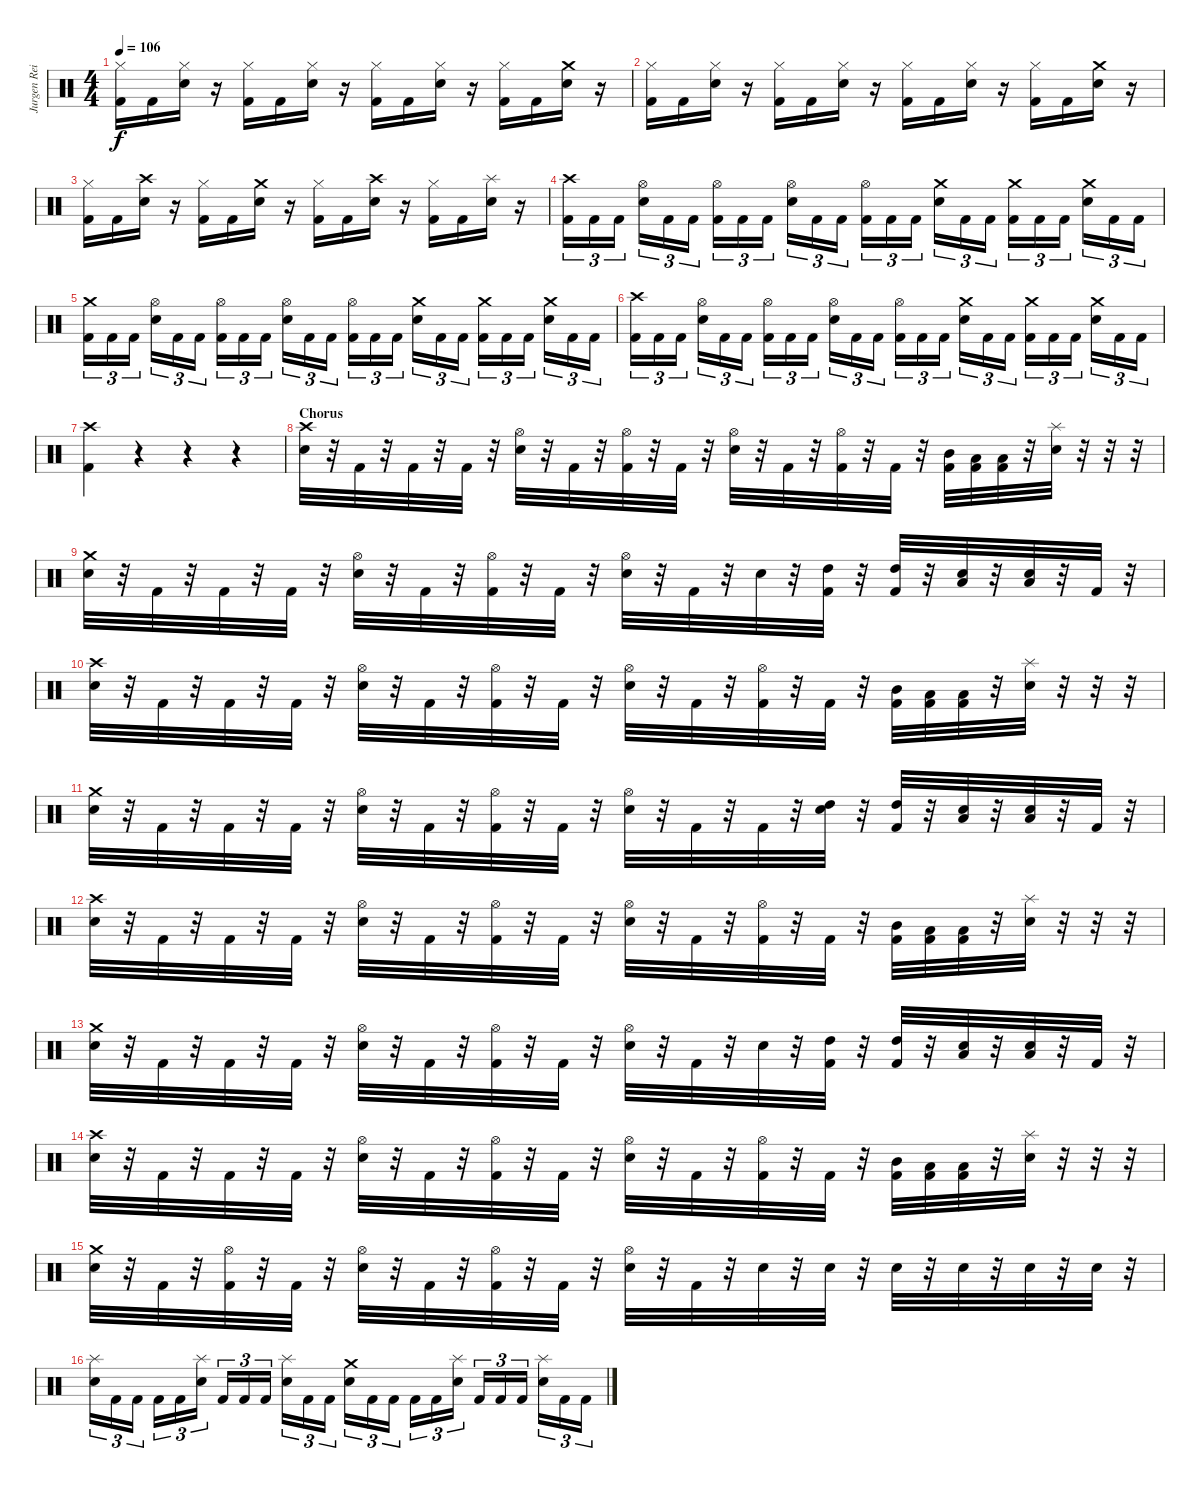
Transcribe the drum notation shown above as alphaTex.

\track ("Jurgen Reil" "Jurgen Rei") {instrument percussion}
\staff {score}
\articulation defaults
\ts (4 4)
\tempo 106
\clef neutral
\ks c
("Hi-Hat (closed)" "Kick (hit) 2").16{dy f} "Kick (hit) 2".16 ("Hi-Hat (closed)" "Snare (hit) 2").16 r.16 ("Hi-Hat (closed)" "Kick (hit) 2").16 "Kick (hit) 2".16 ("Hi-Hat (closed)" "Snare (hit) 2").16 r.16 ("Hi-Hat (closed)" "Kick (hit) 2").16 "Kick (hit) 2".16 ("Hi-Hat (closed)" "Snare (hit) 2").16 r.16 ("Hi-Hat (closed)" "Kick (hit) 2").16 "Kick (hit) 2".16 ("Crash medium (hit)" "Snare (hit) 2").16 r.16 |
("Hi-Hat (closed)" "Kick (hit) 2").16 "Kick (hit) 2".16 ("Hi-Hat (closed)" "Snare (hit) 2").16 r.16 ("Hi-Hat (closed)" "Kick (hit) 2").16 "Kick (hit) 2".16 ("Hi-Hat (closed)" "Snare (hit) 2").16 r.16 ("Hi-Hat (closed)" "Kick (hit) 2").16 "Kick (hit) 2".16 ("Hi-Hat (closed)" "Snare (hit) 2").16 r.16 ("Hi-Hat (closed)" "Kick (hit) 2").16 "Kick (hit) 2".16 ("Crash medium (hit)" "Snare (hit) 2").16 r.16 |
("Hi-Hat (closed)" "Kick (hit) 2").16 "Kick (hit) 2".16 ("Crash high (hit)" "Snare (hit) 2").16 r.16 ("Hi-Hat (closed)" "Kick (hit) 2").16 "Kick (hit) 2".16 ("Crash medium (hit)" "Snare (hit) 2").16 r.16 ("Hi-Hat (closed)" "Kick (hit) 2").16 "Kick (hit) 2".16 ("Crash high (hit)" "Snare (hit) 2").16 r.16 ("Hi-Hat (closed)" "Kick (hit) 2").16 "Kick (hit) 2".16 ("Splash (hit)" "Snare (hit) 2").16 r.16 |
("Crash high (hit)" "Kick (hit) 2").16{tu (3 2)} "Kick (hit) 2".16{tu (3 2)} "Kick (hit) 2".16{tu (3 2)} ("Hi-Hat (open)" "Snare (hit) 2").16{tu (3 2)} "Kick (hit) 2".16{tu (3 2)} "Kick (hit) 2".16{tu (3 2)} ("Hi-Hat (open)" "Kick (hit) 2").16{tu (3 2)} "Kick (hit) 2".16{tu (3 2)} "Kick (hit) 2".16{tu (3 2)} ("Hi-Hat (open)" "Snare (hit) 2").16{tu (3 2)} "Kick (hit) 2".16{tu (3 2)} "Kick (hit) 2".16{tu (3 2)} ("Hi-Hat (open)" "Kick (hit) 2").16{tu (3 2)} "Kick (hit) 2".16{tu (3 2)} "Kick (hit) 2".16{tu (3 2)} ("Crash medium (hit)" "Snare (hit) 2").16{tu (3 2)} "Kick (hit) 2".16{tu (3 2)} "Kick (hit) 2".16{tu (3 2)} ("Crash medium (hit)" "Kick (hit) 2").16{tu (3 2)} "Kick (hit) 2".16{tu (3 2)} "Kick (hit) 2".16{tu (3 2)} ("Crash medium (hit)" "Snare (hit) 2").16{tu (3 2)} "Kick (hit) 2".16{tu (3 2)} "Kick (hit) 2".16{tu (3 2)} |
("Crash medium (hit)" "Kick (hit) 2").16{tu (3 2)} "Kick (hit) 2".16{tu (3 2)} "Kick (hit) 2".16{tu (3 2)} ("Hi-Hat (open)" "Snare (hit) 2").16{tu (3 2)} "Kick (hit) 2".16{tu (3 2)} "Kick (hit) 2".16{tu (3 2)} ("Hi-Hat (open)" "Kick (hit) 2").16{tu (3 2)} "Kick (hit) 2".16{tu (3 2)} "Kick (hit) 2".16{tu (3 2)} ("Hi-Hat (open)" "Snare (hit) 2").16{tu (3 2)} "Kick (hit) 2".16{tu (3 2)} "Kick (hit) 2".16{tu (3 2)} ("Hi-Hat (open)" "Kick (hit) 2").16{tu (3 2)} "Kick (hit) 2".16{tu (3 2)} "Kick (hit) 2".16{tu (3 2)} ("Crash medium (hit)" "Snare (hit) 2").16{tu (3 2)} "Kick (hit) 2".16{tu (3 2)} "Kick (hit) 2".16{tu (3 2)} ("Crash medium (hit)" "Kick (hit) 2").16{tu (3 2)} "Kick (hit) 2".16{tu (3 2)} "Kick (hit) 2".16{tu (3 2)} ("Crash medium (hit)" "Snare (hit) 2").16{tu (3 2)} "Kick (hit) 2".16{tu (3 2)} "Kick (hit) 2".16{tu (3 2)} |
("Crash high (hit)" "Kick (hit) 2").16{tu (3 2)} "Kick (hit) 2".16{tu (3 2)} "Kick (hit) 2".16{tu (3 2)} ("Hi-Hat (open)" "Snare (hit) 2").16{tu (3 2)} "Kick (hit) 2".16{tu (3 2)} "Kick (hit) 2".16{tu (3 2)} ("Hi-Hat (open)" "Kick (hit) 2").16{tu (3 2)} "Kick (hit) 2".16{tu (3 2)} "Kick (hit) 2".16{tu (3 2)} ("Hi-Hat (open)" "Snare (hit) 2").16{tu (3 2)} "Kick (hit) 2".16{tu (3 2)} "Kick (hit) 2".16{tu (3 2)} ("Hi-Hat (open)" "Kick (hit) 2").16{tu (3 2)} "Kick (hit) 2".16{tu (3 2)} "Kick (hit) 2".16{tu (3 2)} ("Crash medium (hit)" "Snare (hit) 2").16{tu (3 2)} "Kick (hit) 2".16{tu (3 2)} "Kick (hit) 2".16{tu (3 2)} ("Crash medium (hit)" "Kick (hit) 2").16{tu (3 2)} "Kick (hit) 2".16{tu (3 2)} "Kick (hit) 2".16{tu (3 2)} ("Crash medium (hit)" "Snare (hit) 2").16{tu (3 2)} "Kick (hit) 2".16{tu (3 2)} "Kick (hit) 2".16{tu (3 2)} |
("Crash high (hit)" "Kick (hit) 2").4 r.4 r.4 r.4 |
\section ("" "Chorus")
("Crash high (hit)" "Snare (hit) 2").32 r.32 "Kick (hit) 2".32 r.32 "Kick (hit) 2".32 r.32 "Kick (hit) 2".32 r.32 ("Hi-Hat (open)" "Snare (hit) 2").32 r.32 "Kick (hit) 2".32 r.32 ("Hi-Hat (open)" "Kick (hit) 2").32 r.32 "Kick (hit) 2".32 r.32 ("Hi-Hat (open)" "Snare (hit) 2").32 r.32 "Kick (hit) 2".32 r.32 ("Hi-Hat (open)" "Kick (hit) 2").32 r.32 "Kick (hit) 2".32 r.32 ("Mid Tom (hit)" "Kick (hit) 2").32 ("Low Tom (hit)" "Kick (hit) 2").32 ("Low Tom (hit)" "Kick (hit) 2").32 r.32 ("Splash (hit)" "Snare (hit) 2").32 r.32 r.32 r.32 |
("Crash medium (hit)" "Snare (hit) 2").32 r.32 "Kick (hit) 2".32 r.32 "Kick (hit) 2".32 r.32 "Kick (hit) 2".32 r.32 ("Hi-Hat (open)" "Snare (hit) 2").32 r.32 "Kick (hit) 2".32 r.32 ("Hi-Hat (open)" "Kick (hit) 2").32 r.32 "Kick (hit) 2".32 r.32 ("Hi-Hat (open)" "Snare (hit) 2").32 r.32 "Kick (hit) 2".32 r.32 "Snare (hit) 2".32 r.32 ("High Tom (hit)" "Kick (hit) 2").32 r.32 ("High Tom (hit)" "Kick (hit) 2").32 r.32 ("Low Tom (hit)" "Snare (hit) 2").32 r.32 ("Low Tom (hit)" "Snare (hit) 2").32 r.32 "Kick (hit) 2".32 r.32 |
("Crash high (hit)" "Snare (hit) 2").32 r.32 "Kick (hit) 2".32 r.32 "Kick (hit) 2".32 r.32 "Kick (hit) 2".32 r.32 ("Hi-Hat (open)" "Snare (hit) 2").32 r.32 "Kick (hit) 2".32 r.32 ("Hi-Hat (open)" "Kick (hit) 2").32 r.32 "Kick (hit) 2".32 r.32 ("Hi-Hat (open)" "Snare (hit) 2").32 r.32 "Kick (hit) 2".32 r.32 ("Hi-Hat (open)" "Kick (hit) 2").32 r.32 "Kick (hit) 2".32 r.32 ("Mid Tom (hit)" "Kick (hit) 2").32 ("Low Tom (hit)" "Kick (hit) 2").32 ("Low Tom (hit)" "Kick (hit) 2").32 r.32 ("Splash (hit)" "Snare (hit) 2").32 r.32 r.32 r.32 |
("Crash medium (hit)" "Snare (hit) 2").32 r.32 "Kick (hit) 2".32 r.32 "Kick (hit) 2".32 r.32 "Kick (hit) 2".32 r.32 ("Hi-Hat (open)" "Snare (hit) 2").32 r.32 "Kick (hit) 2".32 r.32 ("Hi-Hat (open)" "Kick (hit) 2").32 r.32 "Kick (hit) 2".32 r.32 ("Hi-Hat (open)" "Snare (hit) 2").32 r.32 "Kick (hit) 2".32 r.32 "Kick (hit) 2".32 r.32 ("High Tom (hit)" "Snare (hit) 2").32 r.32 ("High Tom (hit)" "Kick (hit) 2").32 r.32 ("Low Tom (hit)" "Snare (hit) 2").32 r.32 ("Low Tom (hit)" "Snare (hit) 2").32 r.32 "Kick (hit) 2".32 r.32 |
("Crash high (hit)" "Snare (hit) 2").32 r.32 "Kick (hit) 2".32 r.32 "Kick (hit) 2".32 r.32 "Kick (hit) 2".32 r.32 ("Hi-Hat (open)" "Snare (hit) 2").32 r.32 "Kick (hit) 2".32 r.32 ("Hi-Hat (open)" "Kick (hit) 2").32 r.32 "Kick (hit) 2".32 r.32 ("Hi-Hat (open)" "Snare (hit) 2").32 r.32 "Kick (hit) 2".32 r.32 ("Hi-Hat (open)" "Kick (hit) 2").32 r.32 "Kick (hit) 2".32 r.32 ("Mid Tom (hit)" "Kick (hit) 2").32 ("Low Tom (hit)" "Kick (hit) 2").32 ("Low Tom (hit)" "Kick (hit) 2").32 r.32 ("Splash (hit)" "Snare (hit) 2").32 r.32 r.32 r.32 |
("Crash medium (hit)" "Snare (hit) 2").32 r.32 "Kick (hit) 2".32 r.32 "Kick (hit) 2".32 r.32 "Kick (hit) 2".32 r.32 ("Hi-Hat (open)" "Snare (hit) 2").32 r.32 "Kick (hit) 2".32 r.32 ("Hi-Hat (open)" "Kick (hit) 2").32 r.32 "Kick (hit) 2".32 r.32 ("Hi-Hat (open)" "Snare (hit) 2").32 r.32 "Kick (hit) 2".32 r.32 "Snare (hit) 2".32 r.32 ("High Tom (hit)" "Kick (hit) 2").32 r.32 ("High Tom (hit)" "Kick (hit) 2").32 r.32 ("Low Tom (hit)" "Snare (hit) 2").32 r.32 ("Low Tom (hit)" "Snare (hit) 2").32 r.32 "Kick (hit) 2".32 r.32 |
("Crash high (hit)" "Snare (hit) 2").32 r.32 "Kick (hit) 2".32 r.32 "Kick (hit) 2".32 r.32 "Kick (hit) 2".32 r.32 ("Hi-Hat (open)" "Snare (hit) 2").32 r.32 "Kick (hit) 2".32 r.32 ("Hi-Hat (open)" "Kick (hit) 2").32 r.32 "Kick (hit) 2".32 r.32 ("Hi-Hat (open)" "Snare (hit) 2").32 r.32 "Kick (hit) 2".32 r.32 ("Hi-Hat (open)" "Kick (hit) 2").32 r.32 "Kick (hit) 2".32 r.32 ("Mid Tom (hit)" "Kick (hit) 2").32 ("Low Tom (hit)" "Kick (hit) 2").32 ("Low Tom (hit)" "Kick (hit) 2").32 r.32 ("Splash (hit)" "Snare (hit) 2").32 r.32 r.32 r.32 |
("Crash medium (hit)" "Snare (hit) 2").32 r.32 "Kick (hit) 2".32 r.32 ("Hi-Hat (open)" "Kick (hit) 2").32 r.32 "Kick (hit) 2".32 r.32 ("Hi-Hat (open)" "Snare (hit) 2").32 r.32 "Kick (hit) 2".32 r.32 ("Hi-Hat (open)" "Kick (hit) 2").32 r.32 "Kick (hit) 2".32 r.32 ("Hi-Hat (open)" "Snare (hit) 2").32 r.32 "Kick (hit) 2".32 r.32 "Snare (hit) 2".32 r.32 "Snare (hit) 2".32 r.32 "Snare (hit) 2".32 r.32 "Snare (hit) 2".32 r.32 "Snare (hit) 2".32 r.32 "Snare (hit) 2".32 r.32 |
("Splash (hit)" "Snare (hit) 2").16{tu (3 2)} "Kick (hit) 2".16{tu (3 2)} "Kick (hit) 2".16{tu (3 2)} "Kick (hit) 2".16{tu (3 2)} "Kick (hit) 2".16{tu (3 2)} ("Splash (hit)" "Snare (hit) 2").16{tu (3 2)} "Kick (hit) 2".16{tu (3 2)} "Kick (hit) 2".16{tu (3 2)} "Kick (hit) 2".16{tu (3 2)} ("Splash (hit)" "Snare (hit) 2").16{tu (3 2)} "Kick (hit) 2".16{tu (3 2)} "Kick (hit) 2".16{tu (3 2)} ("Crash medium (hit)" "Snare (hit) 2").16{tu (3 2)} "Kick (hit) 2".16{tu (3 2)} "Kick (hit) 2".16{tu (3 2)} "Kick (hit) 2".16{tu (3 2)} "Kick (hit) 2".16{tu (3 2)} ("Splash (hit)" "Snare (hit) 2").16{tu (3 2)} "Kick (hit) 2".16{tu (3 2)} "Kick (hit) 2".16{tu (3 2)} "Kick (hit) 2".16{tu (3 2)} ("Splash (hit)" "Snare (hit) 2").16{tu (3 2)} "Kick (hit) 2".16{tu (3 2)} "Kick (hit) 2".16{tu (3 2)}
